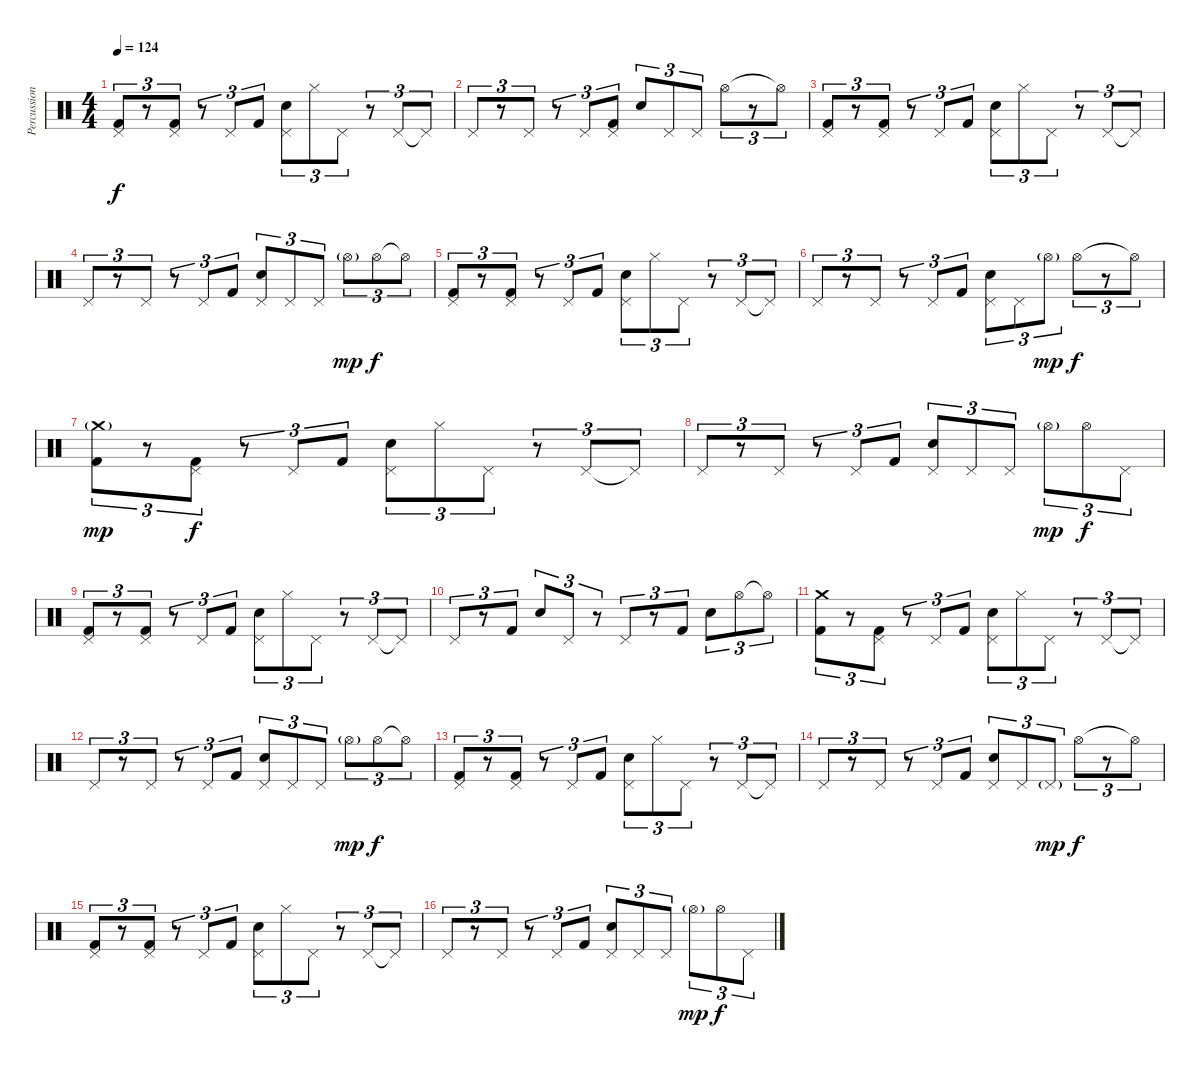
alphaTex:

\track ("Percussions" "Percussion") {instrument percussion}
\staff {score}
\articulation defaults
\ts (4 4)
\tempo 124
\clef neutral
\ks c
("Pedal Hi-Hat (hit)" "Kick (hit) 2").8{tu (3 2) dy f} r.8{tu (3 2)} ("Pedal Hi-Hat (hit)" "Kick (hit) 2").8{tu (3 2)} r.8{tu (3 2)} "Pedal Hi-Hat (hit)".8{tu (3 2)} "Kick (hit) 2".8{tu (3 2)} ("Pedal Hi-Hat (hit)" "Electric Snare (hit)").8{tu (3 2)} "Hi-Hat (closed)".8{tu (3 2)} "Pedal Hi-Hat (hit)".8{tu (3 2)} r.8{tu (3 2)} "Pedal Hi-Hat (hit)".8{tu (3 2)} "Pedal Hi-Hat (hit)"{t}.8{tu (3 2)} |
"Pedal Hi-Hat (hit)".8{tu (3 2)} r.8{tu (3 2)} "Pedal Hi-Hat (hit)".8{tu (3 2)} r.8{tu (3 2)} "Pedal Hi-Hat (hit)".8{tu (3 2)} ("Pedal Hi-Hat (hit)" "Kick (hit) 2").8{tu (3 2)} "Electric Snare (hit)".8{tu (3 2)} "Pedal Hi-Hat (hit)".8{tu (3 2)} "Pedal Hi-Hat (hit)".8{tu (3 2)} "Hi-Hat (open)".8{tu (3 2)} r.8{tu (3 2)} "Hi-Hat (open)"{t}.8{tu (3 2)} |
("Pedal Hi-Hat (hit)" "Kick (hit) 2").8{tu (3 2)} r.8{tu (3 2)} ("Pedal Hi-Hat (hit)" "Kick (hit) 2").8{tu (3 2)} r.8{tu (3 2)} "Pedal Hi-Hat (hit)".8{tu (3 2)} "Kick (hit) 2".8{tu (3 2)} ("Pedal Hi-Hat (hit)" "Electric Snare (hit)").8{tu (3 2)} "Hi-Hat (closed)".8{tu (3 2)} "Pedal Hi-Hat (hit)".8{tu (3 2)} r.8{tu (3 2)} "Pedal Hi-Hat (hit)".8{tu (3 2)} "Pedal Hi-Hat (hit)"{t}.8{tu (3 2)} |
"Pedal Hi-Hat (hit)".8{tu (3 2)} r.8{tu (3 2)} "Pedal Hi-Hat (hit)".8{tu (3 2)} r.8{tu (3 2)} "Pedal Hi-Hat (hit)".8{tu (3 2)} "Kick (hit) 2".8{tu (3 2)} ("Pedal Hi-Hat (hit)" "Electric Snare (hit)").8{tu (3 2)} "Pedal Hi-Hat (hit)".8{tu (3 2)} "Pedal Hi-Hat (hit)".8{tu (3 2)} "Hi-Hat (open)"{g}.8{tu (3 2) dy mp} "Hi-Hat (open)".8{tu (3 2) dy f} "Hi-Hat (open)"{t}.8{tu (3 2)} |
("Pedal Hi-Hat (hit)" "Kick (hit) 2").8{tu (3 2)} r.8{tu (3 2)} ("Pedal Hi-Hat (hit)" "Kick (hit) 2").8{tu (3 2)} r.8{tu (3 2)} "Pedal Hi-Hat (hit)".8{tu (3 2)} "Kick (hit) 2".8{tu (3 2)} ("Pedal Hi-Hat (hit)" "Electric Snare (hit)").8{tu (3 2)} "Hi-Hat (closed)".8{tu (3 2)} "Pedal Hi-Hat (hit)".8{tu (3 2)} r.8{tu (3 2)} "Pedal Hi-Hat (hit)".8{tu (3 2)} "Pedal Hi-Hat (hit)"{t}.8{tu (3 2)} |
"Pedal Hi-Hat (hit)".8{tu (3 2)} r.8{tu (3 2)} "Pedal Hi-Hat (hit)".8{tu (3 2)} r.8{tu (3 2)} "Pedal Hi-Hat (hit)".8{tu (3 2)} "Kick (hit) 2".8{tu (3 2)} ("Pedal Hi-Hat (hit)" "Electric Snare (hit)").8{tu (3 2)} "Pedal Hi-Hat (hit)".8{tu (3 2)} "Hi-Hat (open)"{g}.8{tu (3 2) dy mp} "Hi-Hat (open)".8{tu (3 2) dy f} r.8{tu (3 2)} "Hi-Hat (open)"{t}.8{tu (3 2)} |
("Crash medium (hit)"{g} "Kick (hit) 2").8{tu (3 2) dy mp} r.8{tu (3 2)} ("Pedal Hi-Hat (hit)" "Kick (hit) 2").8{tu (3 2) dy f} r.8{tu (3 2)} "Pedal Hi-Hat (hit)".8{tu (3 2)} "Kick (hit) 2".8{tu (3 2)} ("Pedal Hi-Hat (hit)" "Electric Snare (hit)").8{tu (3 2)} "Hi-Hat (closed)".8{tu (3 2)} "Pedal Hi-Hat (hit)".8{tu (3 2)} r.8{tu (3 2)} "Pedal Hi-Hat (hit)".8{tu (3 2)} "Pedal Hi-Hat (hit)"{t}.8{tu (3 2)} |
"Pedal Hi-Hat (hit)".8{tu (3 2)} r.8{tu (3 2)} "Pedal Hi-Hat (hit)".8{tu (3 2)} r.8{tu (3 2)} "Pedal Hi-Hat (hit)".8{tu (3 2)} "Kick (hit) 2".8{tu (3 2)} ("Pedal Hi-Hat (hit)" "Electric Snare (hit)").8{tu (3 2)} "Pedal Hi-Hat (hit)".8{tu (3 2)} "Pedal Hi-Hat (hit)".8{tu (3 2)} "Hi-Hat (open)"{g}.8{tu (3 2) dy mp} "Hi-Hat (open)".8{tu (3 2) dy f} "Pedal Hi-Hat (hit)".8{tu (3 2)} |
("Pedal Hi-Hat (hit)" "Kick (hit) 2").8{tu (3 2)} r.8{tu (3 2)} ("Pedal Hi-Hat (hit)" "Kick (hit) 2").8{tu (3 2)} r.8{tu (3 2)} "Pedal Hi-Hat (hit)".8{tu (3 2)} "Kick (hit) 2".8{tu (3 2)} ("Pedal Hi-Hat (hit)" "Electric Snare (hit)").8{tu (3 2)} "Hi-Hat (closed)".8{tu (3 2)} "Pedal Hi-Hat (hit)".8{tu (3 2)} r.8{tu (3 2)} "Pedal Hi-Hat (hit)".8{tu (3 2)} "Pedal Hi-Hat (hit)"{t}.8{tu (3 2)} |
"Pedal Hi-Hat (hit)".8{tu (3 2)} r.8{tu (3 2)} "Kick (hit) 2".8{tu (3 2)} "Electric Snare (hit)".8{tu (3 2)} "Pedal Hi-Hat (hit)".8{tu (3 2)} r.8{tu (3 2)} "Pedal Hi-Hat (hit)".8{tu (3 2)} r.8{tu (3 2)} "Kick (hit) 2".8{tu (3 2)} "Electric Snare (hit)".8{tu (3 2)} "Hi-Hat (open)".8{tu (3 2)} "Hi-Hat (open)"{t}.8{tu (3 2)} |
("Crash medium (hit)" "Kick (hit) 2").8{tu (3 2)} r.8{tu (3 2)} ("Pedal Hi-Hat (hit)" "Kick (hit) 2").8{tu (3 2)} r.8{tu (3 2)} "Pedal Hi-Hat (hit)".8{tu (3 2)} "Kick (hit) 2".8{tu (3 2)} ("Pedal Hi-Hat (hit)" "Electric Snare (hit)").8{tu (3 2)} "Hi-Hat (closed)".8{tu (3 2)} "Pedal Hi-Hat (hit)".8{tu (3 2)} r.8{tu (3 2)} "Pedal Hi-Hat (hit)".8{tu (3 2)} "Pedal Hi-Hat (hit)"{t}.8{tu (3 2)} |
"Pedal Hi-Hat (hit)".8{tu (3 2)} r.8{tu (3 2)} "Pedal Hi-Hat (hit)".8{tu (3 2)} r.8{tu (3 2)} "Pedal Hi-Hat (hit)".8{tu (3 2)} "Kick (hit) 2".8{tu (3 2)} ("Pedal Hi-Hat (hit)" "Electric Snare (hit)").8{tu (3 2)} "Pedal Hi-Hat (hit)".8{tu (3 2)} "Pedal Hi-Hat (hit)".8{tu (3 2)} "Hi-Hat (open)"{g}.8{tu (3 2) dy mp} "Hi-Hat (open)".8{tu (3 2) dy f} "Hi-Hat (open)"{t}.8{tu (3 2)} |
("Pedal Hi-Hat (hit)" "Kick (hit) 2").8{tu (3 2)} r.8{tu (3 2)} ("Pedal Hi-Hat (hit)" "Kick (hit) 2").8{tu (3 2)} r.8{tu (3 2)} "Pedal Hi-Hat (hit)".8{tu (3 2)} "Kick (hit) 2".8{tu (3 2)} ("Pedal Hi-Hat (hit)" "Electric Snare (hit)").8{tu (3 2)} "Hi-Hat (closed)".8{tu (3 2)} "Pedal Hi-Hat (hit)".8{tu (3 2)} r.8{tu (3 2)} "Pedal Hi-Hat (hit)".8{tu (3 2)} "Pedal Hi-Hat (hit)"{t}.8{tu (3 2)} |
"Pedal Hi-Hat (hit)".8{tu (3 2)} r.8{tu (3 2)} "Pedal Hi-Hat (hit)".8{tu (3 2)} r.8{tu (3 2)} "Pedal Hi-Hat (hit)".8{tu (3 2)} "Kick (hit) 2".8{tu (3 2)} ("Pedal Hi-Hat (hit)" "Electric Snare (hit)").8{tu (3 2)} "Pedal Hi-Hat (hit)".8{tu (3 2)} "Pedal Hi-Hat (hit)"{g}.8{tu (3 2) dy mp} "Hi-Hat (open)".8{tu (3 2) dy f} r.8{tu (3 2)} "Hi-Hat (open)"{t}.8{tu (3 2)} |
("Pedal Hi-Hat (hit)" "Kick (hit) 2").8{tu (3 2)} r.8{tu (3 2)} ("Pedal Hi-Hat (hit)" "Kick (hit) 2").8{tu (3 2)} r.8{tu (3 2)} "Pedal Hi-Hat (hit)".8{tu (3 2)} "Kick (hit) 2".8{tu (3 2)} ("Pedal Hi-Hat (hit)" "Electric Snare (hit)").8{tu (3 2)} "Hi-Hat (closed)".8{tu (3 2)} "Pedal Hi-Hat (hit)".8{tu (3 2)} r.8{tu (3 2)} "Pedal Hi-Hat (hit)".8{tu (3 2)} "Pedal Hi-Hat (hit)"{t}.8{tu (3 2)} |
"Pedal Hi-Hat (hit)".8{tu (3 2)} r.8{tu (3 2)} "Pedal Hi-Hat (hit)".8{tu (3 2)} r.8{tu (3 2)} "Pedal Hi-Hat (hit)".8{tu (3 2)} "Kick (hit) 2".8{tu (3 2)} ("Pedal Hi-Hat (hit)" "Electric Snare (hit)").8{tu (3 2)} "Pedal Hi-Hat (hit)".8{tu (3 2)} "Pedal Hi-Hat (hit)".8{tu (3 2)} "Hi-Hat (open)"{g}.8{tu (3 2) dy mp} "Hi-Hat (open)".8{tu (3 2) dy f} "Pedal Hi-Hat (hit)".8{tu (3 2)}
